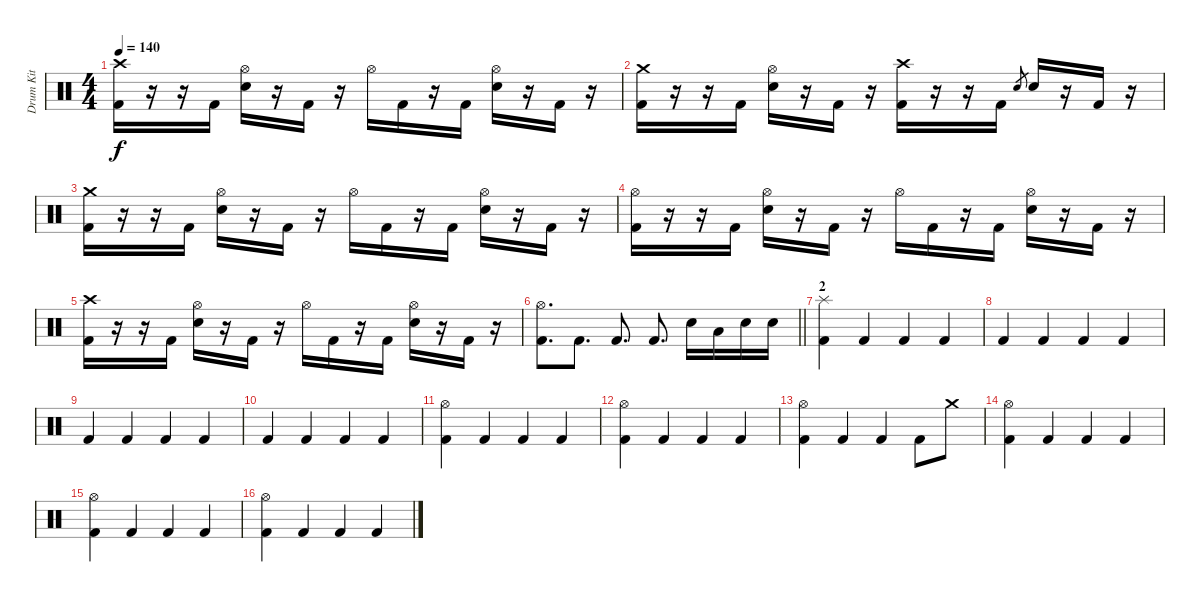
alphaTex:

\track ("Drum Kit" "Drum Kit") {instrument percussion}
\staff {score}
\articulation defaults
\ts (4 4)
\tempo 140
\clef neutral
\ks c
("Crash high (hit)" "Kick (hit) 2").16{dy f} r.16 r.16 "Kick (hit) 2".16 ("Hi-Hat (open)" "Electric Snare (hit)").16 r.16 "Kick (hit) 2".16 r.16 "Hi-Hat (open)".16 "Kick (hit) 2".16 r.16 "Kick (hit) 2".16 ("Hi-Hat (open)" "Electric Snare (hit)").16 r.16 "Kick (hit) 2".16 r.16 |
("Crash medium (hit)" "Kick (hit) 2").16 r.16 r.16 "Kick (hit) 2".16 ("Hi-Hat (open)" "Electric Snare (hit)").16 r.16 "Kick (hit) 2".16 r.16 ("Crash high (hit)" "Kick (hit) 2").16 r.16 r.16 "Kick (hit) 2".16 "Electric Snare (hit)".8{gr} "Electric Snare (hit)".16 r.16 "Kick (hit) 2".16 r.16 |
("Crash medium (hit)" "Kick (hit) 2").16 r.16 r.16 "Kick (hit) 2".16 ("Hi-Hat (open)" "Electric Snare (hit)").16 r.16 "Kick (hit) 2".16 r.16 "Hi-Hat (open)".16 "Kick (hit) 2".16 r.16 "Kick (hit) 2".16 ("Hi-Hat (open)" "Electric Snare (hit)").16 r.16 "Kick (hit) 2".16 r.16 |
("Hi-Hat (open)" "Kick (hit) 2").16 r.16 r.16 "Kick (hit) 2".16 ("Hi-Hat (open)" "Electric Snare (hit)").16 r.16 "Kick (hit) 2".16 r.16 "Hi-Hat (open)".16 "Kick (hit) 2".16 r.16 "Kick (hit) 2".16 ("Hi-Hat (open)" "Electric Snare (hit)").16 r.16 "Kick (hit) 2".16 r.16 |
("Crash high (hit)" "Kick (hit) 2").16 r.16 r.16 "Kick (hit) 2".16 ("Hi-Hat (open)" "Electric Snare (hit)").16 r.16 "Kick (hit) 2".16 r.16 "Hi-Hat (open)".16 "Kick (hit) 2".16 r.16 "Kick (hit) 2".16 ("Hi-Hat (open)" "Electric Snare (hit)").16 r.16 "Kick (hit) 2".16 r.16 |
\barLineRight lightlight
("Hi-Hat (open)" "Kick (hit) 2").8{d} "Kick (hit) 2".8{d} "Kick (hit) 2".8{d} "Kick (hit) 2".8{d} "Electric Snare (hit)".16 "Low Tom (hit)".16 "Electric Snare (hit)".16 "Electric Snare (hit)".16 |
\section ("" "2")
("Splash (hit)" "Kick (hit) 2").4 "Kick (hit) 2".4 "Kick (hit) 2".4 "Kick (hit) 2".4 |
"Kick (hit) 2".4 "Kick (hit) 2".4 "Kick (hit) 2".4 "Kick (hit) 2".4 |
"Kick (hit) 2".4 "Kick (hit) 2".4 "Kick (hit) 2".4 "Kick (hit) 2".4 |
"Kick (hit) 2".4 "Kick (hit) 2".4 "Kick (hit) 2".4 "Kick (hit) 2".4 |
("Hi-Hat (open)" "Kick (hit) 2").4 "Kick (hit) 2".4 "Kick (hit) 2".4 "Kick (hit) 2".4 |
("Hi-Hat (open)" "Kick (hit) 2").4 "Kick (hit) 2".4 "Kick (hit) 2".4 "Kick (hit) 2".4 |
("Hi-Hat (open)" "Kick (hit) 2").4 "Kick (hit) 2".4 "Kick (hit) 2".4 "Kick (hit) 2".8 "Crash medium (hit)".8 |
("Hi-Hat (open)" "Kick (hit) 2").4 "Kick (hit) 2".4 "Kick (hit) 2".4 "Kick (hit) 2".4 |
("Hi-Hat (open)" "Kick (hit) 2").4 "Kick (hit) 2".4 "Kick (hit) 2".4 "Kick (hit) 2".4 |
("Hi-Hat (open)" "Kick (hit) 2").4 "Kick (hit) 2".4 "Kick (hit) 2".4 "Kick (hit) 2".4
